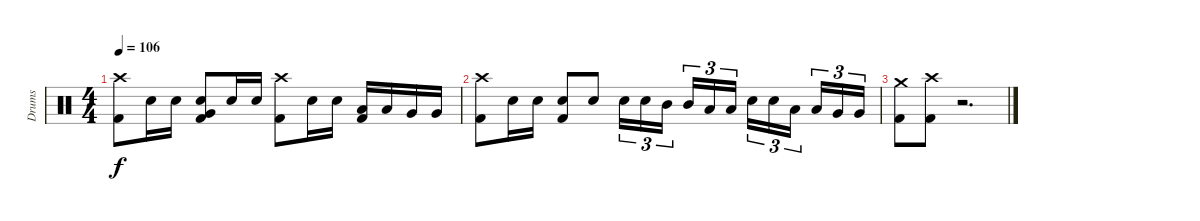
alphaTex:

\track ("Drums" "Drums") {instrument percussion}
\staff {score}
\articulation defaults
\ts (4 4)
\tempo 106
\clef neutral
\ks c
("Crash high (hit)" "Kick (hit) 2").8{dy f} "Electric Snare (hit)".16 "Electric Snare (hit)".16 ("Very Low Tom (hit)" "Electric Snare (hit)" "Kick (hit) 2").8 "Electric Snare (hit)".16 "Electric Snare (hit)".16 ("Crash high (hit)" "Kick (hit) 2").8 "Electric Snare (hit)".16 "Electric Snare (hit)".16 ("Low Tom (hit)" "Kick (hit) 2").16 "Low Tom (hit)".16 "Very Low Tom (hit)".16 "Very Low Tom (hit)".16 |
("Crash high (hit)" "Kick (hit) 2").8 "Electric Snare (hit)".16 "Electric Snare (hit)".16 ("Electric Snare (hit)" "Kick (hit) 2").8 "Electric Snare (hit)".8 "Electric Snare (hit)".16{tu (3 2)} "Electric Snare (hit)".16{tu (3 2)} "Mid Tom (hit)".16{tu (3 2) beam splitsecondary} "Mid Tom (hit)".16{tu (3 2)} "Low Tom (hit)".16{tu (3 2)} "Low Tom (hit)".16{tu (3 2)} "Electric Snare (hit)".16{tu (3 2)} "Electric Snare (hit)".16{tu (3 2)} "Low Tom (hit)".16{tu (3 2) beam splitsecondary} "Low Tom (hit)".16{tu (3 2)} "Very Low Tom (hit)".16{tu (3 2)} "Very Low Tom (hit)".16{tu (3 2)} |
("Crash medium (hit)" "Kick (hit) 2").8 ("Crash high (hit)" "Kick (hit) 2").8 r.2{d}
